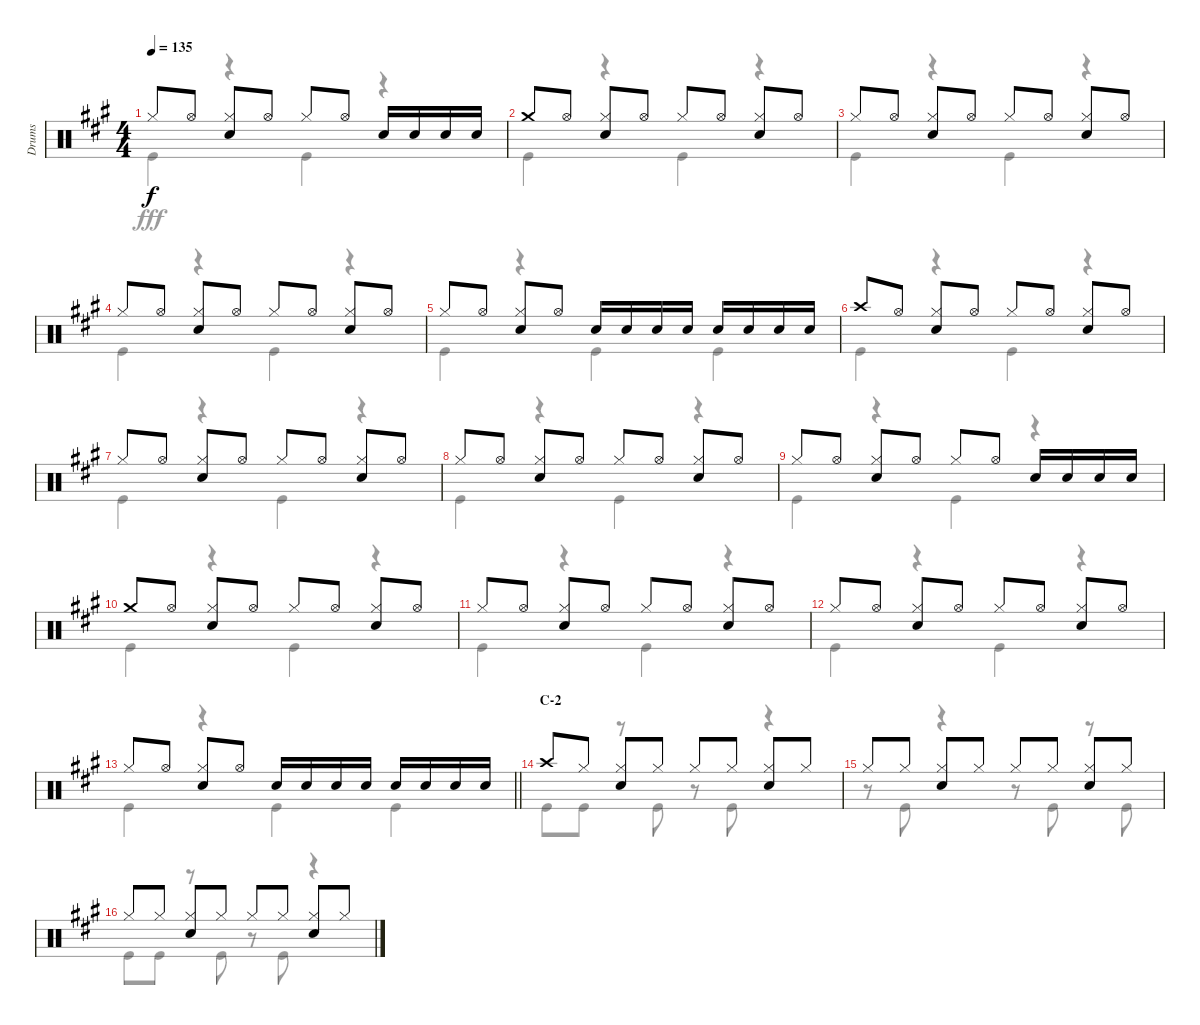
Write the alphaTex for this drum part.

\track ("Drums" "Drums") {instrument percussion}
\staff {score}
\articulation defaults
\voice
\ts (4 4)
\tempo 135
\clef neutral
\ks a "Hi-Hat (closed)".8{dy f} "Hi-Hat (open)".8
("Hi-Hat (closed)" "Snare (hit) 2").8 "Hi-Hat (open)".8 "Hi-Hat (closed)".8 "Hi-Hat (open)".8 "Snare (hit) 2".16 "Snare (hit) 2".16 "Snare (hit) 2".16 "Snare (hit) 2".16 |
"Crash medium (hit)".8 "Hi-Hat (open)".8 ("Hi-Hat (closed)" "Snare (hit) 2").8 "Hi-Hat (open)".8 "Hi-Hat (closed)".8 "Hi-Hat (open)".8 ("Hi-Hat (closed)" "Snare (hit) 2").8 "Hi-Hat (open)".8 |
"Hi-Hat (closed)".8 "Hi-Hat (open)".8 ("Hi-Hat (closed)" "Snare (hit) 2").8 "Hi-Hat (open)".8 "Hi-Hat (closed)".8 "Hi-Hat (open)".8 ("Hi-Hat (closed)" "Snare (hit) 2").8 "Hi-Hat (open)".8 |
"Hi-Hat (closed)".8 "Hi-Hat (open)".8 ("Hi-Hat (closed)" "Snare (hit) 2").8 "Hi-Hat (open)".8 "Hi-Hat (closed)".8 "Hi-Hat (open)".8 ("Hi-Hat (closed)" "Snare (hit) 2").8 "Hi-Hat (open)".8 |
"Hi-Hat (closed)".8 "Hi-Hat (open)".8 ("Hi-Hat (closed)" "Snare (hit) 2").8 "Hi-Hat (open)".8 "Snare (hit) 2".16 "Snare (hit) 2".16 "Snare (hit) 2".16 "Snare (hit) 2".16 "Snare (hit) 2".16 "Snare (hit) 2".16 "Snare (hit) 2".16 "Snare (hit) 2".16 |
"Crash high (hit)".8 "Hi-Hat (open)".8 ("Hi-Hat (closed)" "Snare (hit) 2").8 "Hi-Hat (open)".8 "Hi-Hat (closed)".8 "Hi-Hat (open)".8 ("Hi-Hat (closed)" "Snare (hit) 2").8 "Hi-Hat (open)".8 |
"Hi-Hat (closed)".8 "Hi-Hat (open)".8 ("Hi-Hat (closed)" "Snare (hit) 2").8 "Hi-Hat (open)".8 "Hi-Hat (closed)".8 "Hi-Hat (open)".8 ("Hi-Hat (closed)" "Snare (hit) 2").8 "Hi-Hat (open)".8 |
"Hi-Hat (closed)".8 "Hi-Hat (open)".8 ("Hi-Hat (closed)" "Snare (hit) 2").8 "Hi-Hat (open)".8 "Hi-Hat (closed)".8 "Hi-Hat (open)".8 ("Hi-Hat (closed)" "Snare (hit) 2").8 "Hi-Hat (open)".8 |
"Hi-Hat (closed)".8 "Hi-Hat (open)".8 ("Hi-Hat (closed)" "Snare (hit) 2").8 "Hi-Hat (open)".8 "Hi-Hat (closed)".8 "Hi-Hat (open)".8 "Snare (hit) 2".16 "Snare (hit) 2".16 "Snare (hit) 2".16 "Snare (hit) 2".16 |
"Crash medium (hit)".8 "Hi-Hat (open)".8 ("Hi-Hat (closed)" "Snare (hit) 2").8 "Hi-Hat (open)".8 "Hi-Hat (closed)".8 "Hi-Hat (open)".8 ("Hi-Hat (closed)" "Snare (hit) 2").8 "Hi-Hat (open)".8 |
"Hi-Hat (closed)".8 "Hi-Hat (open)".8 ("Hi-Hat (closed)" "Snare (hit) 2").8 "Hi-Hat (open)".8 "Hi-Hat (closed)".8 "Hi-Hat (open)".8 ("Hi-Hat (closed)" "Snare (hit) 2").8 "Hi-Hat (open)".8 |
"Hi-Hat (closed)".8 "Hi-Hat (open)".8 ("Hi-Hat (closed)" "Snare (hit) 2").8 "Hi-Hat (open)".8 "Hi-Hat (closed)".8 "Hi-Hat (open)".8 ("Hi-Hat (closed)" "Snare (hit) 2").8 "Hi-Hat (open)".8 |
\barLineRight lightlight "Hi-Hat (closed)".8 "Hi-Hat (open)".8
("Hi-Hat (closed)" "Snare (hit) 2").8 "Hi-Hat (open)".8 "Snare (hit) 2".16 "Snare (hit) 2".16 "Snare (hit) 2".16 "Snare (hit) 2".16 "Snare (hit) 2".16 "Snare (hit) 2".16 "Snare (hit) 2".16 "Snare (hit) 2".16 |
\section ("" "C-2")
"Crash high (hit)".8 "Hi-Hat (closed)".8 ("Hi-Hat (closed)" "Snare (hit) 2").8 "Hi-Hat (closed)".8 "Hi-Hat (closed)".8 "Hi-Hat (closed)".8 ("Hi-Hat (closed)" "Snare (hit) 2").8 "Hi-Hat (closed)".8 |
"Hi-Hat (closed)".8 "Hi-Hat (closed)".8 ("Hi-Hat (closed)" "Snare (hit) 2").8 "Hi-Hat (closed)".8 "Hi-Hat (closed)".8 "Hi-Hat (closed)".8 ("Hi-Hat (closed)" "Snare (hit) 2").8 "Hi-Hat (closed)".8 |
"Hi-Hat (closed)".8 "Hi-Hat (closed)".8 ("Hi-Hat (closed)" "Snare (hit) 2").8 "Hi-Hat (closed)".8 "Hi-Hat (closed)".8 "Hi-Hat (closed)".8 ("Hi-Hat (closed)" "Snare (hit) 2").8 "Hi-Hat (closed)".8
\voice
\clef neutral
\ottava regular
\simile none
\ks a "Kick (hit)".4{dy fff}
r.4 "Kick (hit)".4 r.4 |
"Kick (hit)".4 r.4 "Kick (hit)".4 r.4 |
"Kick (hit)".4 r.4 "Kick (hit)".4 r.4 |
"Kick (hit)".4 r.4 "Kick (hit)".4 r.4 |
"Kick (hit)".4 r.4 "Kick (hit)".4 "Kick (hit)".4 |
"Kick (hit)".4 r.4 "Kick (hit)".4 r.4 |
"Kick (hit)".4 r.4 "Kick (hit)".4 r.4 |
"Kick (hit)".4 r.4 "Kick (hit)".4 r.4 |
"Kick (hit)".4 r.4 "Kick (hit)".4 r.4 |
"Kick (hit)".4 r.4 "Kick (hit)".4 r.4 |
"Kick (hit)".4 r.4 "Kick (hit)".4 r.4 |
"Kick (hit)".4 r.4 "Kick (hit)".4 r.4 |
\barLineRight lightlight "Kick (hit)".4
r.4 "Kick (hit)".4 "Kick (hit)".4 |
"Kick (hit)".8 "Kick (hit)".8 r.8 "Kick (hit)".8 r.8 "Kick (hit)".8 r.4 |
r.8 "Kick (hit)".8 r.4 r.8 "Kick (hit)".8 r.8 "Kick (hit)".8 |
"Kick (hit)".8 "Kick (hit)".8 r.8 "Kick (hit)".8 r.8 "Kick (hit)".8 r.4
